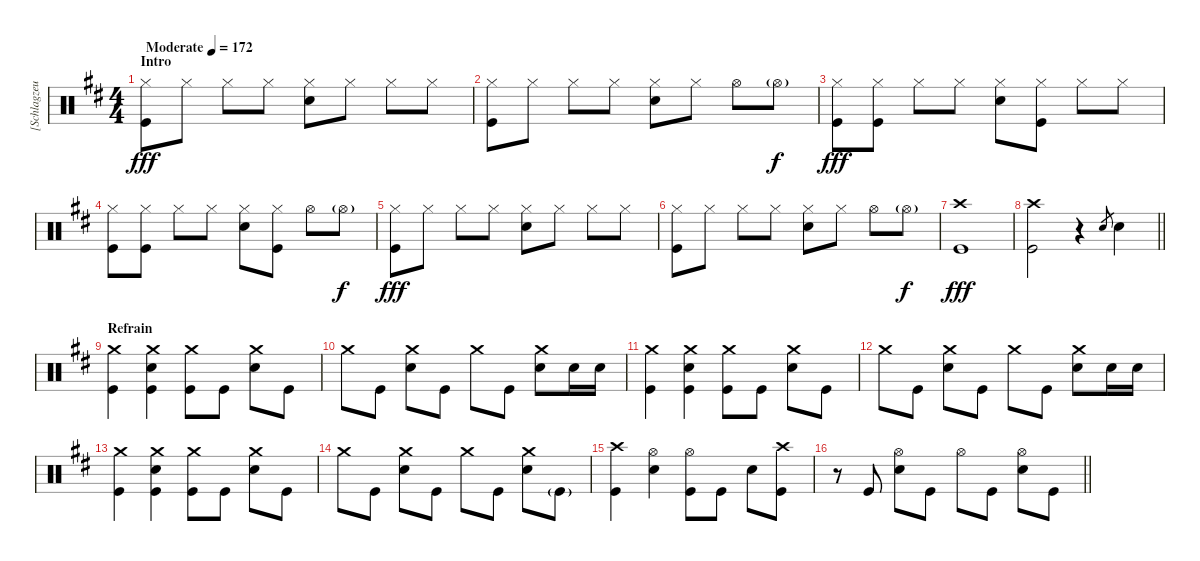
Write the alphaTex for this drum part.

\track ("[Schlagzeug]" "[Schlagzeu") {instrument percussion}
\staff {score}
\articulation defaults
\ts (4 4)
\section ("" "Intro")
\tempo (172 "Moderate")
\clef neutral
\ks d
("Hi-Hat (closed)" "Kick (hit)").8{dy fff} "Hi-Hat (closed)".8 "Hi-Hat (closed)".8 "Hi-Hat (closed)".8 ("Hi-Hat (closed)" "Electric Snare (hit)").8 "Hi-Hat (closed)".8 "Hi-Hat (closed)".8 "Hi-Hat (closed)".8 |
("Hi-Hat (closed)" "Kick (hit)").8 "Hi-Hat (closed)".8 "Hi-Hat (closed)".8 "Hi-Hat (closed)".8 ("Hi-Hat (closed)" "Electric Snare (hit)").8 "Hi-Hat (closed)".8 "Hi-Hat (open)".8 "Hi-Hat (open)"{g}.8{dy f} |
("Hi-Hat (closed)" "Kick (hit)").8{dy fff} ("Hi-Hat (closed)" "Kick (hit)").8 "Hi-Hat (closed)".8 "Hi-Hat (closed)".8 ("Hi-Hat (closed)" "Electric Snare (hit)").8 ("Hi-Hat (closed)" "Kick (hit)").8 "Hi-Hat (closed)".8 "Hi-Hat (closed)".8 |
("Hi-Hat (closed)" "Kick (hit)").8 ("Hi-Hat (closed)" "Kick (hit)").8 "Hi-Hat (closed)".8 "Hi-Hat (closed)".8 ("Hi-Hat (closed)" "Electric Snare (hit)").8 ("Hi-Hat (closed)" "Kick (hit)").8 "Hi-Hat (open)".8 "Hi-Hat (open)"{g}.8{dy f} |
("Hi-Hat (closed)" "Kick (hit)").8{dy fff} "Hi-Hat (closed)".8 "Hi-Hat (closed)".8 "Hi-Hat (closed)".8 ("Hi-Hat (closed)" "Electric Snare (hit)").8 "Hi-Hat (closed)".8 "Hi-Hat (closed)".8 "Hi-Hat (closed)".8 |
("Hi-Hat (closed)" "Kick (hit)").8 "Hi-Hat (closed)".8 "Hi-Hat (closed)".8 "Hi-Hat (closed)".8 ("Hi-Hat (closed)" "Electric Snare (hit)").8 "Hi-Hat (closed)".8 "Hi-Hat (open)".8 "Hi-Hat (open)"{g}.8{dy f} |
("Crash high (hit)" "Kick (hit)").1{dy fff} |
\barLineRight lightlight
("Crash high (hit)" "Kick (hit)").2 r.4 "Electric Snare (hit)".8{gr} "Electric Snare (hit)".4 |
\section ("" "Refrain")
("Crash medium (hit)" "Kick (hit)").4 ("Crash medium (hit)" "Electric Snare (hit)" "Kick (hit)").4 ("Crash medium (hit)" "Kick (hit)").8 "Kick (hit)".8 ("Crash medium (hit)" "Electric Snare (hit)").8 "Kick (hit)".8 |
"Crash medium (hit)".8 "Kick (hit)".8 ("Crash medium (hit)" "Electric Snare (hit)").8 "Kick (hit)".8 "Crash medium (hit)".8 "Kick (hit)".8 ("Crash medium (hit)" "Electric Snare (hit)").8 "Electric Snare (hit)".16 "Electric Snare (hit)".16 |
("Crash medium (hit)" "Kick (hit)").4 ("Crash medium (hit)" "Electric Snare (hit)" "Kick (hit)").4 ("Crash medium (hit)" "Kick (hit)").8 "Kick (hit)".8 ("Crash medium (hit)" "Electric Snare (hit)").8 "Kick (hit)".8 |
"Crash medium (hit)".8 "Kick (hit)".8 ("Crash medium (hit)" "Electric Snare (hit)").8 "Kick (hit)".8 "Crash medium (hit)".8 "Kick (hit)".8 ("Crash medium (hit)" "Electric Snare (hit)").8 "Electric Snare (hit)".16 "Electric Snare (hit)".16 |
("Crash medium (hit)" "Kick (hit)").4 ("Crash medium (hit)" "Electric Snare (hit)" "Kick (hit)").4 ("Crash medium (hit)" "Kick (hit)").8 "Kick (hit)".8 ("Crash medium (hit)" "Electric Snare (hit)").8 "Kick (hit)".8 |
"Crash medium (hit)".8 "Kick (hit)".8 ("Crash medium (hit)" "Electric Snare (hit)").8 "Kick (hit)".8 "Crash medium (hit)".8 "Kick (hit)".8 ("Crash medium (hit)" "Electric Snare (hit)").8 "Kick (hit)"{g}.8 |
("Crash high (hit)" "Kick (hit)").4 ("Hi-Hat (open)" "Electric Snare (hit)").4 ("Hi-Hat (open)" "Kick (hit)").8 "Kick (hit)".8 "Electric Snare (hit)".8 ("Crash high (hit)" "Kick (hit)").8 |
\barLineRight lightlight
r.8 "Kick (hit)".8 ("Hi-Hat (open)" "Electric Snare (hit)").8 "Kick (hit)".8 "Hi-Hat (open)".8 "Kick (hit)".8 ("Hi-Hat (open)" "Electric Snare (hit)").8 "Kick (hit)".8
